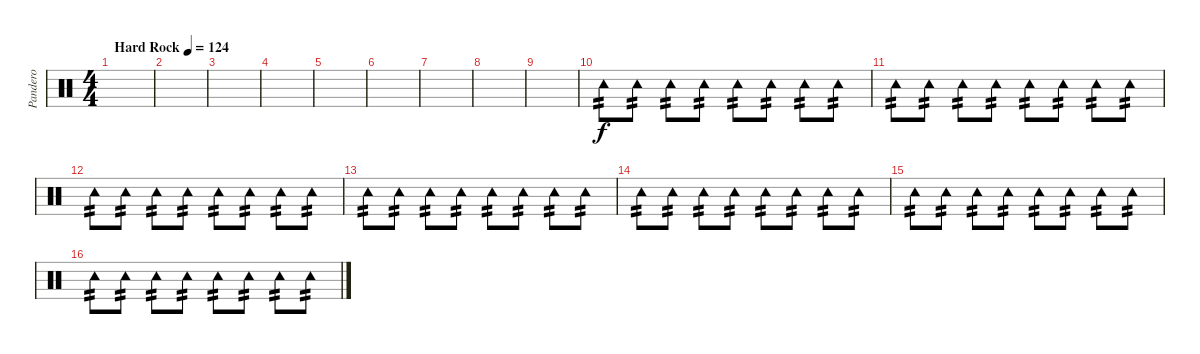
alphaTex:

\track ("Pandero" "Pandero") {instrument percussion}
\staff {score}
\articulation defaults
\ts (4 4)
\tempo (124 "Hard Rock")
\clef neutral
\ks c
|
|
|
|
|
|
|
|
|
"Tambourine (hit)".8{tp 2} "Tambourine (hit)".8{tp 2} "Tambourine (hit)".8{tp 2} "Tambourine (hit)".8{tp 2} "Tambourine (hit)".8{tp 2} "Tambourine (hit)".8{tp 2} "Tambourine (hit)".8{tp 2} "Tambourine (hit)".8{tp 2} |
"Tambourine (hit)".8{tp 2} "Tambourine (hit)".8{tp 2} "Tambourine (hit)".8{tp 2} "Tambourine (hit)".8{tp 2} "Tambourine (hit)".8{tp 2} "Tambourine (hit)".8{tp 2} "Tambourine (hit)".8{tp 2} "Tambourine (hit)".8{tp 2} |
"Tambourine (hit)".8{tp 2} "Tambourine (hit)".8{tp 2} "Tambourine (hit)".8{tp 2} "Tambourine (hit)".8{tp 2} "Tambourine (hit)".8{tp 2} "Tambourine (hit)".8{tp 2} "Tambourine (hit)".8{tp 2} "Tambourine (hit)".8{tp 2} |
"Tambourine (hit)".8{tp 2} "Tambourine (hit)".8{tp 2} "Tambourine (hit)".8{tp 2} "Tambourine (hit)".8{tp 2} "Tambourine (hit)".8{tp 2} "Tambourine (hit)".8{tp 2} "Tambourine (hit)".8{tp 2} "Tambourine (hit)".8{tp 2} |
"Tambourine (hit)".8{tp 2} "Tambourine (hit)".8{tp 2} "Tambourine (hit)".8{tp 2} "Tambourine (hit)".8{tp 2} "Tambourine (hit)".8{tp 2} "Tambourine (hit)".8{tp 2} "Tambourine (hit)".8{tp 2} "Tambourine (hit)".8{tp 2} |
"Tambourine (hit)".8{tp 2} "Tambourine (hit)".8{tp 2} "Tambourine (hit)".8{tp 2} "Tambourine (hit)".8{tp 2} "Tambourine (hit)".8{tp 2} "Tambourine (hit)".8{tp 2} "Tambourine (hit)".8{tp 2} "Tambourine (hit)".8{tp 2} |
"Tambourine (hit)".8{tp 2} "Tambourine (hit)".8{tp 2} "Tambourine (hit)".8{tp 2} "Tambourine (hit)".8{tp 2} "Tambourine (hit)".8{tp 2} "Tambourine (hit)".8{tp 2} "Tambourine (hit)".8{tp 2} "Tambourine (hit)".8{tp 2}
